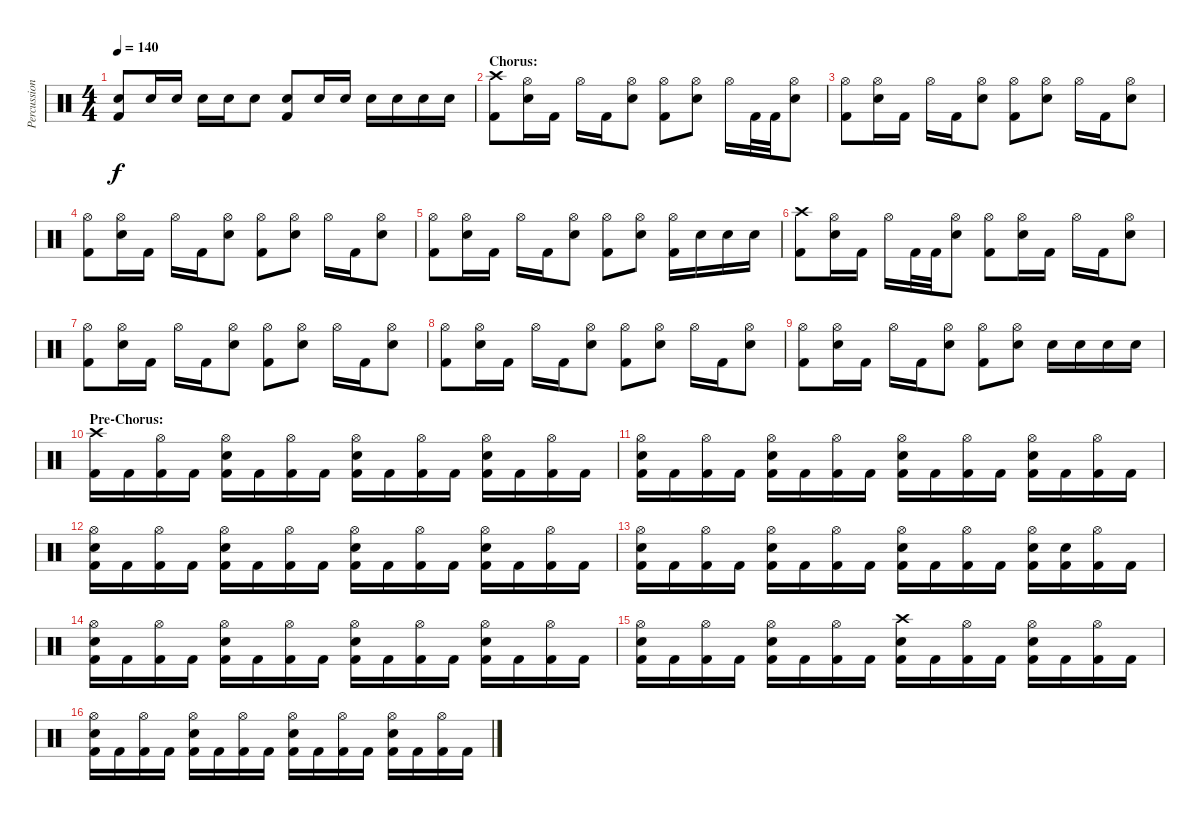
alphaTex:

\track ("Percussion" "Percussion") {instrument percussion}
\staff {score}
\articulation defaults
\ts (4 4)
\tempo 140
\clef neutral
\ks c
("Electric Snare (hit)" "Kick (hit) 2").8{dy f} "Electric Snare (hit)".16 "Electric Snare (hit)".16 "Electric Snare (hit)".16 "Electric Snare (hit)".16 "Electric Snare (hit)".8 ("Electric Snare (hit)" "Kick (hit) 2").8 "Electric Snare (hit)".16 "Electric Snare (hit)".16 "Electric Snare (hit)".16 "Electric Snare (hit)".16 "Electric Snare (hit)".16 "Electric Snare (hit)".16 |
\section ("" "Chorus:")
("Crash high (hit)" "Kick (hit) 2").8 ("Hi-Hat (open)" "Electric Snare (hit)").16 "Kick (hit) 2".16 "Hi-Hat (open)".16 "Kick (hit) 2".16 ("Hi-Hat (open)" "Electric Snare (hit)").8 ("Hi-Hat (open)" "Kick (hit) 2").8 ("Hi-Hat (open)" "Electric Snare (hit)").8 "Hi-Hat (open)".16 "Kick (hit) 2".32 "Kick (hit) 2".32 ("Hi-Hat (open)" "Electric Snare (hit)").8 |
("Hi-Hat (open)" "Kick (hit) 2").8 ("Hi-Hat (open)" "Electric Snare (hit)").16 "Kick (hit) 2".16 "Hi-Hat (open)".16 "Kick (hit) 2".16 ("Hi-Hat (open)" "Electric Snare (hit)").8 ("Hi-Hat (open)" "Kick (hit) 2").8 ("Hi-Hat (open)" "Electric Snare (hit)").8 "Hi-Hat (open)".16 "Kick (hit) 2".16 ("Hi-Hat (open)" "Electric Snare (hit)").8 |
("Hi-Hat (open)" "Kick (hit) 2").8 ("Hi-Hat (open)" "Electric Snare (hit)").16 "Kick (hit) 2".16 "Hi-Hat (open)".16 "Kick (hit) 2".16 ("Hi-Hat (open)" "Electric Snare (hit)").8 ("Hi-Hat (open)" "Kick (hit) 2").8 ("Hi-Hat (open)" "Electric Snare (hit)").8 "Hi-Hat (open)".16 "Kick (hit) 2".16 ("Hi-Hat (open)" "Electric Snare (hit)").8 |
("Hi-Hat (open)" "Kick (hit) 2").8 ("Hi-Hat (open)" "Electric Snare (hit)").16 "Kick (hit) 2".16 "Hi-Hat (open)".16 "Kick (hit) 2".16 ("Hi-Hat (open)" "Electric Snare (hit)").8 ("Hi-Hat (open)" "Kick (hit) 2").8 ("Hi-Hat (open)" "Electric Snare (hit)").8 ("Hi-Hat (open)" "Kick (hit) 2").16 "Electric Snare (hit)".16 "Electric Snare (hit)".16 "Electric Snare (hit)".16 |
("Crash high (hit)" "Kick (hit) 2").8 ("Hi-Hat (open)" "Electric Snare (hit)").16 "Kick (hit) 2".16 "Hi-Hat (open)".16 "Kick (hit) 2".32 "Kick (hit) 2".32 ("Hi-Hat (open)" "Electric Snare (hit)").8 ("Hi-Hat (open)" "Kick (hit) 2").8 ("Hi-Hat (open)" "Electric Snare (hit)").16 "Kick (hit) 2".16 "Hi-Hat (open)".16 "Kick (hit) 2".16 ("Hi-Hat (open)" "Electric Snare (hit)").8 |
("Hi-Hat (open)" "Kick (hit) 2").8 ("Hi-Hat (open)" "Electric Snare (hit)").16 "Kick (hit) 2".16 "Hi-Hat (open)".16 "Kick (hit) 2".16 ("Hi-Hat (open)" "Electric Snare (hit)").8 ("Hi-Hat (open)" "Kick (hit) 2").8 ("Hi-Hat (open)" "Electric Snare (hit)").8 "Hi-Hat (open)".16 "Kick (hit) 2".16 ("Hi-Hat (open)" "Electric Snare (hit)").8 |
("Hi-Hat (open)" "Kick (hit) 2").8 ("Hi-Hat (open)" "Electric Snare (hit)").16 "Kick (hit) 2".16 "Hi-Hat (open)".16 "Kick (hit) 2".16 ("Hi-Hat (open)" "Electric Snare (hit)").8 ("Hi-Hat (open)" "Kick (hit) 2").8 ("Hi-Hat (open)" "Electric Snare (hit)").8 "Hi-Hat (open)".16 "Kick (hit) 2".16 ("Hi-Hat (open)" "Electric Snare (hit)").8 |
("Hi-Hat (open)" "Kick (hit) 2").8 ("Hi-Hat (open)" "Electric Snare (hit)").16 "Kick (hit) 2".16 "Hi-Hat (open)".16 "Kick (hit) 2".16 ("Hi-Hat (open)" "Electric Snare (hit)").8 ("Hi-Hat (open)" "Kick (hit) 2").8 ("Hi-Hat (open)" "Electric Snare (hit)").8 "Electric Snare (hit)".16 "Electric Snare (hit)".16 "Electric Snare (hit)".16 "Electric Snare (hit)".16 |
\section ("" "Pre-Chorus:")
("Crash high (hit)" "Kick (hit) 2").16 "Kick (hit) 2".16 ("Hi-Hat (open)" "Kick (hit) 2").16 "Kick (hit) 2".16 ("Hi-Hat (open)" "Electric Snare (hit)" "Kick (hit) 2").16 "Kick (hit) 2".16 ("Hi-Hat (open)" "Kick (hit) 2").16 "Kick (hit) 2".16 ("Hi-Hat (open)" "Electric Snare (hit)" "Kick (hit) 2").16 "Kick (hit) 2".16 ("Hi-Hat (open)" "Kick (hit) 2").16 "Kick (hit) 2".16 ("Hi-Hat (open)" "Electric Snare (hit)" "Kick (hit) 2").16 "Kick (hit) 2".16 ("Hi-Hat (open)" "Kick (hit) 2").16 "Kick (hit) 2".16 |
("Hi-Hat (open)" "Electric Snare (hit)" "Kick (hit) 2").16 "Kick (hit) 2".16 ("Hi-Hat (open)" "Kick (hit) 2").16 "Kick (hit) 2".16 ("Hi-Hat (open)" "Electric Snare (hit)" "Kick (hit) 2").16 "Kick (hit) 2".16 ("Hi-Hat (open)" "Kick (hit) 2").16 "Kick (hit) 2".16 ("Hi-Hat (open)" "Electric Snare (hit)" "Kick (hit) 2").16 "Kick (hit) 2".16 ("Hi-Hat (open)" "Kick (hit) 2").16 "Kick (hit) 2".16 ("Hi-Hat (open)" "Electric Snare (hit)" "Kick (hit) 2").16 "Kick (hit) 2".16 ("Hi-Hat (open)" "Kick (hit) 2").16 "Kick (hit) 2".16 |
("Hi-Hat (open)" "Electric Snare (hit)" "Kick (hit) 2").16 "Kick (hit) 2".16 ("Hi-Hat (open)" "Kick (hit) 2").16 "Kick (hit) 2".16 ("Hi-Hat (open)" "Electric Snare (hit)" "Kick (hit) 2").16 "Kick (hit) 2".16 ("Hi-Hat (open)" "Kick (hit) 2").16 "Kick (hit) 2".16 ("Hi-Hat (open)" "Electric Snare (hit)" "Kick (hit) 2").16 "Kick (hit) 2".16 ("Hi-Hat (open)" "Kick (hit) 2").16 "Kick (hit) 2".16 ("Hi-Hat (open)" "Electric Snare (hit)" "Kick (hit) 2").16 "Kick (hit) 2".16 ("Hi-Hat (open)" "Kick (hit) 2").16 "Kick (hit) 2".16 |
("Hi-Hat (open)" "Electric Snare (hit)" "Kick (hit) 2").16 "Kick (hit) 2".16 ("Hi-Hat (open)" "Kick (hit) 2").16 "Kick (hit) 2".16 ("Hi-Hat (open)" "Electric Snare (hit)" "Kick (hit) 2").16 "Kick (hit) 2".16 ("Hi-Hat (open)" "Kick (hit) 2").16 "Kick (hit) 2".16 ("Hi-Hat (open)" "Electric Snare (hit)" "Kick (hit) 2").16 "Kick (hit) 2".16 ("Hi-Hat (open)" "Kick (hit) 2").16 "Kick (hit) 2".16 ("Hi-Hat (open)" "Electric Snare (hit)" "Kick (hit) 2").16 ("Electric Snare (hit)" "Kick (hit) 2").16 ("Hi-Hat (open)" "Kick (hit) 2").16 "Kick (hit) 2".16 |
("Hi-Hat (open)" "Electric Snare (hit)" "Kick (hit) 2").16 "Kick (hit) 2".16 ("Hi-Hat (open)" "Kick (hit) 2").16 "Kick (hit) 2".16 ("Hi-Hat (open)" "Electric Snare (hit)" "Kick (hit) 2").16 "Kick (hit) 2".16 ("Hi-Hat (open)" "Kick (hit) 2").16 "Kick (hit) 2".16 ("Hi-Hat (open)" "Electric Snare (hit)" "Kick (hit) 2").16 "Kick (hit) 2".16 ("Hi-Hat (open)" "Kick (hit) 2").16 "Kick (hit) 2".16 ("Hi-Hat (open)" "Electric Snare (hit)" "Kick (hit) 2").16 "Kick (hit) 2".16 ("Hi-Hat (open)" "Kick (hit) 2").16 "Kick (hit) 2".16 |
("Hi-Hat (open)" "Electric Snare (hit)" "Kick (hit) 2").16 "Kick (hit) 2".16 ("Hi-Hat (open)" "Kick (hit) 2").16 "Kick (hit) 2".16 ("Hi-Hat (open)" "Electric Snare (hit)" "Kick (hit) 2").16 "Kick (hit) 2".16 ("Hi-Hat (open)" "Kick (hit) 2").16 "Kick (hit) 2".16 ("Crash high (hit)" "Electric Snare (hit)" "Kick (hit) 2").16 "Kick (hit) 2".16 ("Hi-Hat (open)" "Kick (hit) 2").16 "Kick (hit) 2".16 ("Hi-Hat (open)" "Electric Snare (hit)" "Kick (hit) 2").16 "Kick (hit) 2".16 ("Hi-Hat (open)" "Kick (hit) 2").16 "Kick (hit) 2".16 |
("Hi-Hat (open)" "Electric Snare (hit)" "Kick (hit) 2").16 "Kick (hit) 2".16 ("Hi-Hat (open)" "Kick (hit) 2").16 "Kick (hit) 2".16 ("Hi-Hat (open)" "Electric Snare (hit)" "Kick (hit) 2").16 "Kick (hit) 2".16 ("Hi-Hat (open)" "Kick (hit) 2").16 "Kick (hit) 2".16 ("Hi-Hat (open)" "Electric Snare (hit)" "Kick (hit) 2").16 "Kick (hit) 2".16 ("Hi-Hat (open)" "Kick (hit) 2").16 "Kick (hit) 2".16 ("Hi-Hat (open)" "Electric Snare (hit)" "Kick (hit) 2").16 "Kick (hit) 2".16 ("Hi-Hat (open)" "Kick (hit) 2").16 "Kick (hit) 2".16
